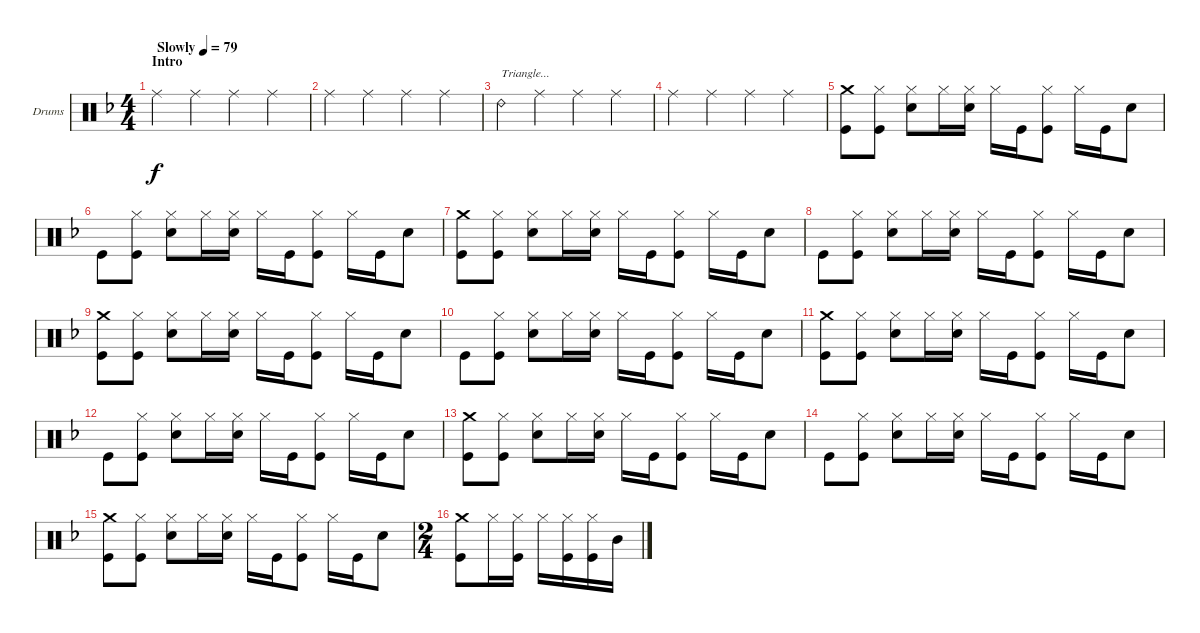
\defaultSystemsLayout 4
\bracketExtendMode groupsimilarinstruments
\firstSystemTrackNameOrientation horizontal
\otherSystemsTrackNameOrientation horizontal
\track ("Drumkit" "Drums") {instrument percussion}
\staff {score}
\articulation defaults
\ts (4 4)
\section ("" "Intro")
\tempo (79 "Slowly")
\clef neutral
\ks f "Ride (middle)".4{dy f} "Ride (middle)".4 "Ride (middle)".4 "Ride (middle)".4
|
"Ride (middle)".4 "Ride (middle)".4 "Ride (middle)".4 "Ride (middle)".4 |
"Ride (bell) 2".4{txt "Triangle..."} "Ride (middle)".4 "Ride (middle)".4 "Ride (middle)".4 |
"Ride (middle)".4 "Ride (middle)".4 "Ride (middle)".4 "Ride (middle)".4 |
("Kick (hit)" "Crash medium (hit)").8 ("Kick (hit)" "Hi-Hat (closed)").8 ("Snare (hit) 2" "Hi-Hat (closed)").8 "Hi-Hat (closed)".16 ("Hi-Hat (closed)" "Snare (hit) 2").16 "Hi-Hat (closed)".16 "Kick (hit)".16 ("Kick (hit)" "Hi-Hat (closed)").8 "Hi-Hat (closed)".16 "Kick (hit)".16 "Snare (hit) 2".8 |
"Kick (hit)".8 ("Kick (hit)" "Hi-Hat (closed)").8 ("Snare (hit) 2" "Hi-Hat (closed)").8 "Hi-Hat (closed)".16 ("Hi-Hat (closed)" "Snare (hit) 2").16 "Hi-Hat (closed)".16 "Kick (hit)".16 ("Kick (hit)" "Hi-Hat (closed)").8 "Hi-Hat (closed)".16 "Kick (hit)".16 "Snare (hit) 2".8 |
("Kick (hit)" "Crash medium (hit)").8 ("Kick (hit)" "Hi-Hat (closed)").8 ("Snare (hit) 2" "Hi-Hat (closed)").8 "Hi-Hat (closed)".16 ("Hi-Hat (closed)" "Snare (hit) 2").16 "Hi-Hat (closed)".16 "Kick (hit)".16 ("Kick (hit)" "Hi-Hat (closed)").8 "Hi-Hat (closed)".16 "Kick (hit)".16 "Snare (hit) 2".8 |
"Kick (hit)".8 ("Kick (hit)" "Hi-Hat (closed)").8 ("Snare (hit) 2" "Hi-Hat (closed)").8 "Hi-Hat (closed)".16 ("Hi-Hat (closed)" "Snare (hit) 2").16 "Hi-Hat (closed)".16 "Kick (hit)".16 ("Kick (hit)" "Hi-Hat (closed)").8 "Hi-Hat (closed)".16 "Kick (hit)".16 "Snare (hit) 2".8 |
("Kick (hit)" "Crash medium (hit)").8 ("Kick (hit)" "Hi-Hat (closed)").8 ("Snare (hit) 2" "Hi-Hat (closed)").8 "Hi-Hat (closed)".16 ("Hi-Hat (closed)" "Snare (hit) 2").16 "Hi-Hat (closed)".16 "Kick (hit)".16 ("Kick (hit)" "Hi-Hat (closed)").8 "Hi-Hat (closed)".16 "Kick (hit)".16 "Snare (hit) 2".8 |
"Kick (hit)".8 ("Kick (hit)" "Hi-Hat (closed)").8 ("Snare (hit) 2" "Hi-Hat (closed)").8 "Hi-Hat (closed)".16 ("Hi-Hat (closed)" "Snare (hit) 2").16 "Hi-Hat (closed)".16 "Kick (hit)".16 ("Kick (hit)" "Hi-Hat (closed)").8 "Hi-Hat (closed)".16 "Kick (hit)".16 "Snare (hit) 2".8 |
("Kick (hit)" "Crash medium (hit)").8 ("Kick (hit)" "Hi-Hat (closed)").8 ("Snare (hit) 2" "Hi-Hat (closed)").8 "Hi-Hat (closed)".16 ("Hi-Hat (closed)" "Snare (hit) 2").16 "Hi-Hat (closed)".16 "Kick (hit)".16 ("Kick (hit)" "Hi-Hat (closed)").8 "Hi-Hat (closed)".16 "Kick (hit)".16 "Snare (hit) 2".8 |
"Kick (hit)".8 ("Kick (hit)" "Hi-Hat (closed)").8 ("Snare (hit) 2" "Hi-Hat (closed)").8 "Hi-Hat (closed)".16 ("Hi-Hat (closed)" "Snare (hit) 2").16 "Hi-Hat (closed)".16 "Kick (hit)".16 ("Kick (hit)" "Hi-Hat (closed)").8 "Hi-Hat (closed)".16 "Kick (hit)".16 "Snare (hit) 2".8 |
("Kick (hit)" "Crash medium (hit)").8 ("Kick (hit)" "Hi-Hat (closed)").8 ("Snare (hit) 2" "Hi-Hat (closed)").8 "Hi-Hat (closed)".16 ("Hi-Hat (closed)" "Snare (hit) 2").16 "Hi-Hat (closed)".16 "Kick (hit)".16 ("Kick (hit)" "Hi-Hat (closed)").8 "Hi-Hat (closed)".16 "Kick (hit)".16 "Snare (hit) 2".8 |
"Kick (hit)".8 ("Kick (hit)" "Hi-Hat (closed)").8 ("Snare (hit) 2" "Hi-Hat (closed)").8 "Hi-Hat (closed)".16 ("Hi-Hat (closed)" "Snare (hit) 2").16 "Hi-Hat (closed)".16 "Kick (hit)".16 ("Kick (hit)" "Hi-Hat (closed)").8 "Hi-Hat (closed)".16 "Kick (hit)".16 "Snare (hit) 2".8 |
("Kick (hit)" "Crash medium (hit)").8 ("Kick (hit)" "Hi-Hat (closed)").8 ("Snare (hit) 2" "Hi-Hat (closed)").8 "Hi-Hat (closed)".16 ("Hi-Hat (closed)" "Snare (hit) 2").16 "Hi-Hat (closed)".16 "Kick (hit)".16 ("Kick (hit)" "Hi-Hat (closed)").8 "Hi-Hat (closed)".16 "Kick (hit)".16 "Snare (hit) 2".8 |
\ts (2 4)
("Kick (hit)" "Crash medium (hit)").8 "Hi-Hat (closed)".16 ("Hi-Hat (closed)" "Kick (hit)").16 "Hi-Hat (closed)".16 ("Hi-Hat (closed)" "Kick (hit)").16 ("Hi-Hat (closed)" "Kick (hit)").16 "Mid Tom (hit)".16
